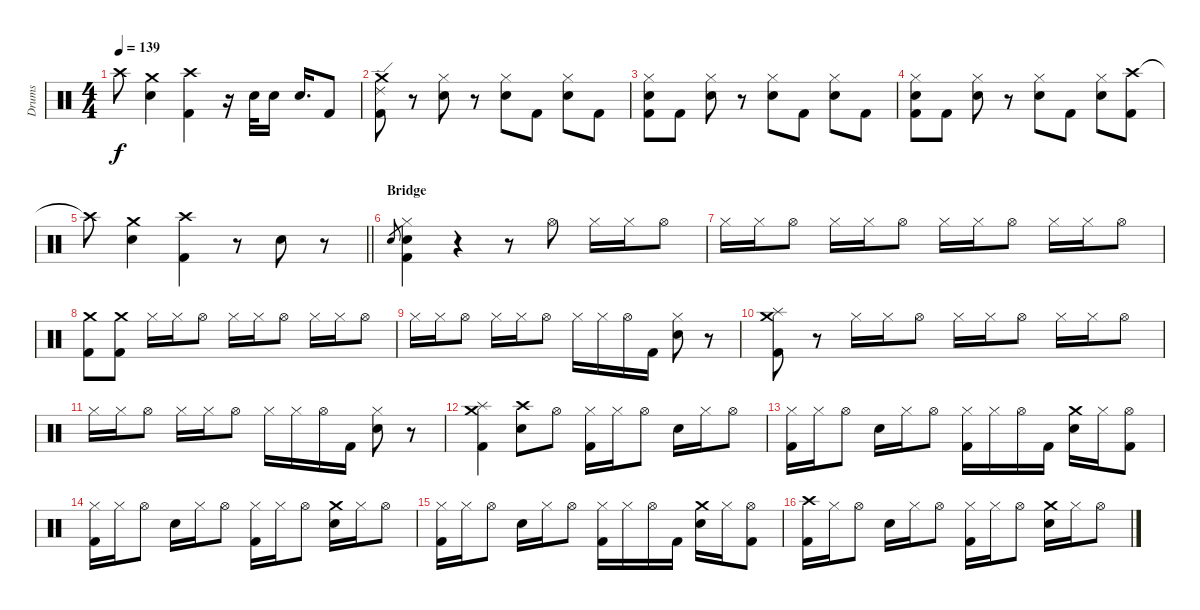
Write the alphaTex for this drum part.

\track ("Drums" "Drums") {instrument percussion}
\staff {score}
\articulation defaults
\ts (4 4)
\tempo 139
\clef neutral
\ks c "Crash high (hit)"{t}.8{dy f}
("Crash medium (hit)" "Hand Clap (hit)").4 ("Crash high (hit)" "Kick (hit) 2").4 r.16 "Electric Snare (hit)".32 "Electric Snare (hit)".16 "Electric Snare (hit)".16{d} "Kick (hit) 2".8 |
("Ride (edge) 2" "Crash medium (hit)" "Kick (hit) 2").8 r.8 ("Hi-Hat (closed)" "Electric Snare (hit)").8 r.8 ("Hi-Hat (closed)" "Electric Snare (hit)").8 "Kick (hit) 2".8 ("Hi-Hat (closed)" "Electric Snare (hit)").8 "Kick (hit) 2".8 |
("Hi-Hat (closed)" "Electric Snare (hit)" "Kick (hit) 2").8 "Kick (hit) 2".8 ("Hi-Hat (closed)" "Electric Snare (hit)").8 r.8 ("Hi-Hat (closed)" "Electric Snare (hit)").8 "Kick (hit) 2".8 ("Hi-Hat (closed)" "Electric Snare (hit)").8 "Kick (hit) 2".8 |
("Hi-Hat (closed)" "Electric Snare (hit)" "Kick (hit) 2").8 "Kick (hit) 2".8 ("Hi-Hat (closed)" "Electric Snare (hit)").8 r.8 ("Hi-Hat (closed)" "Electric Snare (hit)").8 "Kick (hit) 2".8 ("Hi-Hat (closed)" "Electric Snare (hit)").8 ("Crash high (hit)" "Kick (hit) 2").8 |
\barLineRight lightlight "Crash high (hit)"{t}.8
("Crash medium (hit)" "Hand Clap (hit)").4 ("Crash high (hit)" "Kick (hit) 2").4 r.8 "Electric Snare (hit)".8 r.8 |
\section ("" "Bridge")
"Electric Snare (hit)".8{gr} ("Hi-Hat (closed)" "Electric Snare (hit)" "Kick (hit) 2").4 r.4 r.8 "Hi-Hat (open)".8 "Hi-Hat (closed)".16 "Hi-Hat (closed)".16 "Hi-Hat (open)".8 |
"Hi-Hat (closed)".16 "Hi-Hat (closed)".16 "Hi-Hat (open)".8 "Hi-Hat (closed)".16 "Hi-Hat (closed)".16 "Hi-Hat (open)".8 "Hi-Hat (closed)".16 "Hi-Hat (closed)".16 "Hi-Hat (open)".8 "Hi-Hat (closed)".16 "Hi-Hat (closed)".16 "Hi-Hat (open)".8 |
("Crash medium (hit)" "Kick (hit) 2").8 ("Crash medium (hit)" "Kick (hit) 2").8 "Hi-Hat (closed)".16 "Hi-Hat (closed)".16 "Hi-Hat (open)".8 "Hi-Hat (closed)".16 "Hi-Hat (closed)".16 "Hi-Hat (open)".8 "Hi-Hat (closed)".16 "Hi-Hat (closed)".16 "Hi-Hat (open)".8 |
"Hi-Hat (closed)".16 "Hi-Hat (closed)".16 "Hi-Hat (open)".8 "Hi-Hat (closed)".16 "Hi-Hat (closed)".16 "Hi-Hat (open)".8 "Hi-Hat (closed)".16 "Hi-Hat (closed)".16 "Hi-Hat (open)".16 "Kick (hit) 2".16 ("Hi-Hat (closed)" "Electric Snare (hit)").8 r.8 |
("Splash (hit)" "Crash medium (hit)" "Kick (hit) 2").8 r.8 "Hi-Hat (closed)".16 "Hi-Hat (closed)".16 "Hi-Hat (open)".8 "Hi-Hat (closed)".16 "Hi-Hat (closed)".16 "Hi-Hat (open)".8 "Hi-Hat (closed)".16 "Hi-Hat (closed)".16 "Hi-Hat (open)".8 |
"Hi-Hat (closed)".16 "Hi-Hat (closed)".16 "Hi-Hat (open)".8 "Hi-Hat (closed)".16 "Hi-Hat (closed)".16 "Hi-Hat (open)".8 "Hi-Hat (closed)".16 "Hi-Hat (closed)".16 "Hi-Hat (open)".16 "Kick (hit) 2".16 ("Hi-Hat (closed)" "Electric Snare (hit)").8 r.8 |
("Splash (hit)" "Crash medium (hit)" "Kick (hit) 2").4 ("Crash high (hit)" "Electric Snare (hit)").8 "Hi-Hat (open)".8 ("Hi-Hat (closed)" "Kick (hit) 2").16 "Hi-Hat (closed)".16 "Hi-Hat (open)".8 "Electric Snare (hit)".16 "Hi-Hat (closed)".16 "Hi-Hat (open)".8 |
("Hi-Hat (closed)" "Kick (hit) 2").16 "Hi-Hat (closed)".16 "Hi-Hat (open)".8 "Electric Snare (hit)".16 "Hi-Hat (closed)".16 "Hi-Hat (open)".8 ("Hi-Hat (closed)" "Kick (hit) 2").16 "Hi-Hat (closed)".16 "Hi-Hat (open)".16 "Kick (hit) 2".16 ("Crash medium (hit)" "Electric Snare (hit)").16 "Hi-Hat (closed)".16 ("Hi-Hat (open)" "Kick (hit) 2").8 |
("Hi-Hat (closed)" "Kick (hit) 2").16 "Hi-Hat (closed)".16 "Hi-Hat (open)".8 "Electric Snare (hit)".16 "Hi-Hat (closed)".16 "Hi-Hat (open)".8 ("Hi-Hat (closed)" "Kick (hit) 2").16 "Hi-Hat (closed)".16 "Hi-Hat (open)".8 ("Crash medium (hit)" "Electric Snare (hit)").16 "Hi-Hat (closed)".16 "Hi-Hat (open)".8 |
("Hi-Hat (closed)" "Kick (hit) 2").16 "Hi-Hat (closed)".16 "Hi-Hat (open)".8 "Electric Snare (hit)".16 "Hi-Hat (closed)".16 "Hi-Hat (open)".8 ("Hi-Hat (closed)" "Kick (hit) 2").16 "Hi-Hat (closed)".16 "Hi-Hat (open)".16 "Kick (hit) 2".16 ("Crash medium (hit)" "Electric Snare (hit)").16 "Hi-Hat (closed)".16 ("Hi-Hat (open)" "Kick (hit) 2").8 |
("Crash high (hit)" "Kick (hit) 2").16 "Hi-Hat (closed)".16 "Hi-Hat (open)".8 "Electric Snare (hit)".16 "Hi-Hat (closed)".16 "Hi-Hat (open)".8 ("Hi-Hat (closed)" "Kick (hit) 2").16 "Hi-Hat (closed)".16 "Hi-Hat (open)".8 ("Crash medium (hit)" "Electric Snare (hit)").16 "Hi-Hat (closed)".16 "Hi-Hat (open)".8
